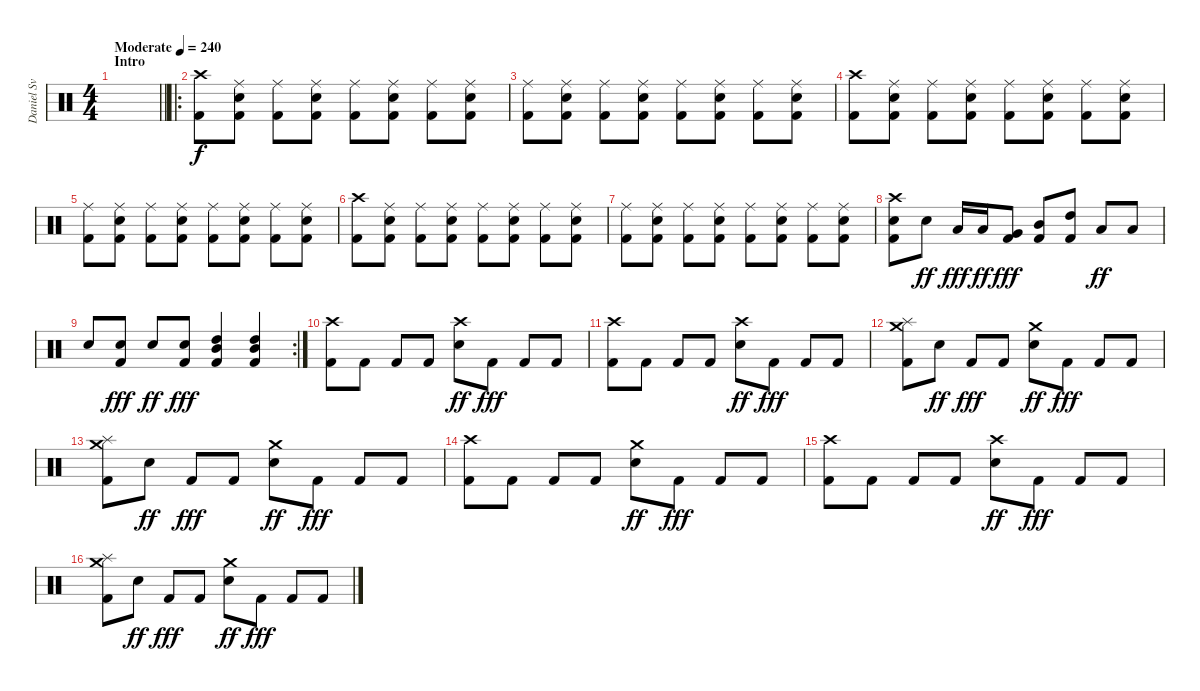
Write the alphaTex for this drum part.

\track (" Daniel Svensson" " Daniel Sv") {instrument percussion}
\staff {score}
\articulation defaults
\ts (4 4)
\section ("" "Intro")
\tempo (240 "Moderate")
\clef neutral
\barLineRight lightlight
\ks c
|
\ro
("Crash high (hit)" "Kick (hit) 2").8 ("Ride (middle)" "Electric Snare (hit)" "Kick (hit) 2").8 ("Ride (middle)" "Kick (hit) 2").8 ("Ride (middle)" "Electric Snare (hit)" "Kick (hit) 2").8 ("Ride (middle)" "Kick (hit) 2").8 ("Ride (middle)" "Electric Snare (hit)" "Kick (hit) 2").8 ("Ride (middle)" "Kick (hit) 2").8 ("Ride (middle)" "Electric Snare (hit)" "Kick (hit) 2").8 |
("Ride (middle)" "Kick (hit) 2").8 ("Ride (middle)" "Electric Snare (hit)" "Kick (hit) 2").8 ("Ride (middle)" "Kick (hit) 2").8 ("Ride (middle)" "Electric Snare (hit)" "Kick (hit) 2").8 ("Ride (middle)" "Kick (hit) 2").8 ("Ride (middle)" "Electric Snare (hit)" "Kick (hit) 2").8 ("Ride (middle)" "Kick (hit) 2").8 ("Ride (middle)" "Electric Snare (hit)" "Kick (hit) 2").8 |
("Crash high (hit)" "Kick (hit) 2").8 ("Ride (middle)" "Electric Snare (hit)" "Kick (hit) 2").8 ("Ride (middle)" "Kick (hit) 2").8 ("Ride (middle)" "Electric Snare (hit)" "Kick (hit) 2").8 ("Ride (middle)" "Kick (hit) 2").8 ("Ride (middle)" "Electric Snare (hit)" "Kick (hit) 2").8 ("Ride (middle)" "Kick (hit) 2").8 ("Ride (middle)" "Electric Snare (hit)" "Kick (hit) 2").8 |
("Ride (middle)" "Kick (hit) 2").8 ("Ride (middle)" "Electric Snare (hit)" "Kick (hit) 2").8 ("Ride (middle)" "Kick (hit) 2").8 ("Ride (middle)" "Electric Snare (hit)" "Kick (hit) 2").8 ("Ride (middle)" "Kick (hit) 2").8 ("Ride (middle)" "Electric Snare (hit)" "Kick (hit) 2").8 ("Ride (middle)" "Kick (hit) 2").8 ("Ride (middle)" "Electric Snare (hit)" "Kick (hit) 2").8 |
("Crash high (hit)" "Kick (hit) 2").8 ("Ride (middle)" "Electric Snare (hit)" "Kick (hit) 2").8 ("Ride (middle)" "Kick (hit) 2").8 ("Ride (middle)" "Electric Snare (hit)" "Kick (hit) 2").8 ("Ride (middle)" "Kick (hit) 2").8 ("Ride (middle)" "Electric Snare (hit)" "Kick (hit) 2").8 ("Ride (middle)" "Kick (hit) 2").8 ("Ride (middle)" "Electric Snare (hit)" "Kick (hit) 2").8 |
("Ride (middle)" "Kick (hit) 2").8 ("Ride (middle)" "Electric Snare (hit)" "Kick (hit) 2").8 ("Ride (middle)" "Kick (hit) 2").8 ("Ride (middle)" "Electric Snare (hit)" "Kick (hit) 2").8 ("Ride (middle)" "Kick (hit) 2").8 ("Ride (middle)" "Electric Snare (hit)" "Kick (hit) 2").8 ("Ride (middle)" "Kick (hit) 2").8 ("Ride (middle)" "Electric Snare (hit)" "Kick (hit) 2").8 |
("Crash high (hit)" "Electric Snare (hit)" "Kick (hit) 2").8 "Electric Snare (hit)".8{dy ff} "Low Floor Tom (hit)".16{dy fff} "Low Floor Tom (hit)".16{dy ff} ("Very Low Tom (hit)" "Kick (hit) 2").8{dy fff} ("Mid Tom (hit)" "Kick (hit) 2").8 ("High Tom (hit)" "Kick (hit) 2").8 "Low Tom (hit)".8{dy ff} "Low Tom (hit)".8 |
\rc 2 "Electric Snare (hit)".8
("Electric Snare (hit)" "Kick (hit) 2").8{dy fff} "Electric Snare (hit)".8{dy ff} ("Electric Snare (hit)" "Kick (hit) 2").8{dy fff} ("High Tom (hit)" "Mid Tom (hit)" "Kick (hit) 2").4 ("High Tom (hit)" "Mid Tom (hit)" "Kick (hit) 2").4 |
("Crash high (hit)" "Kick (hit) 2").8 "Kick (hit) 2".8 "Kick (hit) 2".8 "Kick (hit) 2".8 ("Crash high (hit)" "Electric Snare (hit)").8{dy ff} "Kick (hit) 2".8{dy fff} "Kick (hit) 2".8 "Kick (hit) 2".8 |
("Crash high (hit)" "Kick (hit) 2").8 "Kick (hit) 2".8 "Kick (hit) 2".8 "Kick (hit) 2".8 ("Crash high (hit)" "Electric Snare (hit)").8{dy ff} "Kick (hit) 2".8{dy fff} "Kick (hit) 2".8 "Kick (hit) 2".8 |
("Crash medium (hit)" "Splash (hit)" "Kick (hit) 2").8 "Electric Snare (hit)".8{dy ff} "Kick (hit) 2".8{dy fff} "Kick (hit) 2".8 ("Crash medium (hit)" "Electric Snare (hit)").8{dy ff} "Kick (hit) 2".8{dy fff} "Kick (hit) 2".8 "Kick (hit) 2".8 |
("Crash medium (hit)" "Splash (hit)" "Kick (hit) 2").8 "Electric Snare (hit)".8{dy ff} "Kick (hit) 2".8{dy fff} "Kick (hit) 2".8 ("Crash medium (hit)" "Electric Snare (hit)").8{dy ff} "Kick (hit) 2".8{dy fff} "Kick (hit) 2".8 "Kick (hit) 2".8 |
("Crash high (hit)" "Kick (hit) 2").8 "Kick (hit) 2".8 "Kick (hit) 2".8 "Kick (hit) 2".8 ("Crash medium (hit)" "Electric Snare (hit)").8{dy ff} "Kick (hit) 2".8{dy fff} "Kick (hit) 2".8 "Kick (hit) 2".8 |
("Crash high (hit)" "Kick (hit) 2").8 "Kick (hit) 2".8 "Kick (hit) 2".8 "Kick (hit) 2".8 ("Crash high (hit)" "Electric Snare (hit)").8{dy ff} "Kick (hit) 2".8{dy fff} "Kick (hit) 2".8 "Kick (hit) 2".8 |
("Crash medium (hit)" "Splash (hit)" "Kick (hit) 2").8 "Electric Snare (hit)".8{dy ff} "Kick (hit) 2".8{dy fff} "Kick (hit) 2".8 ("Crash medium (hit)" "Electric Snare (hit)").8{dy ff} "Kick (hit) 2".8{dy fff} "Kick (hit) 2".8 "Kick (hit) 2".8
